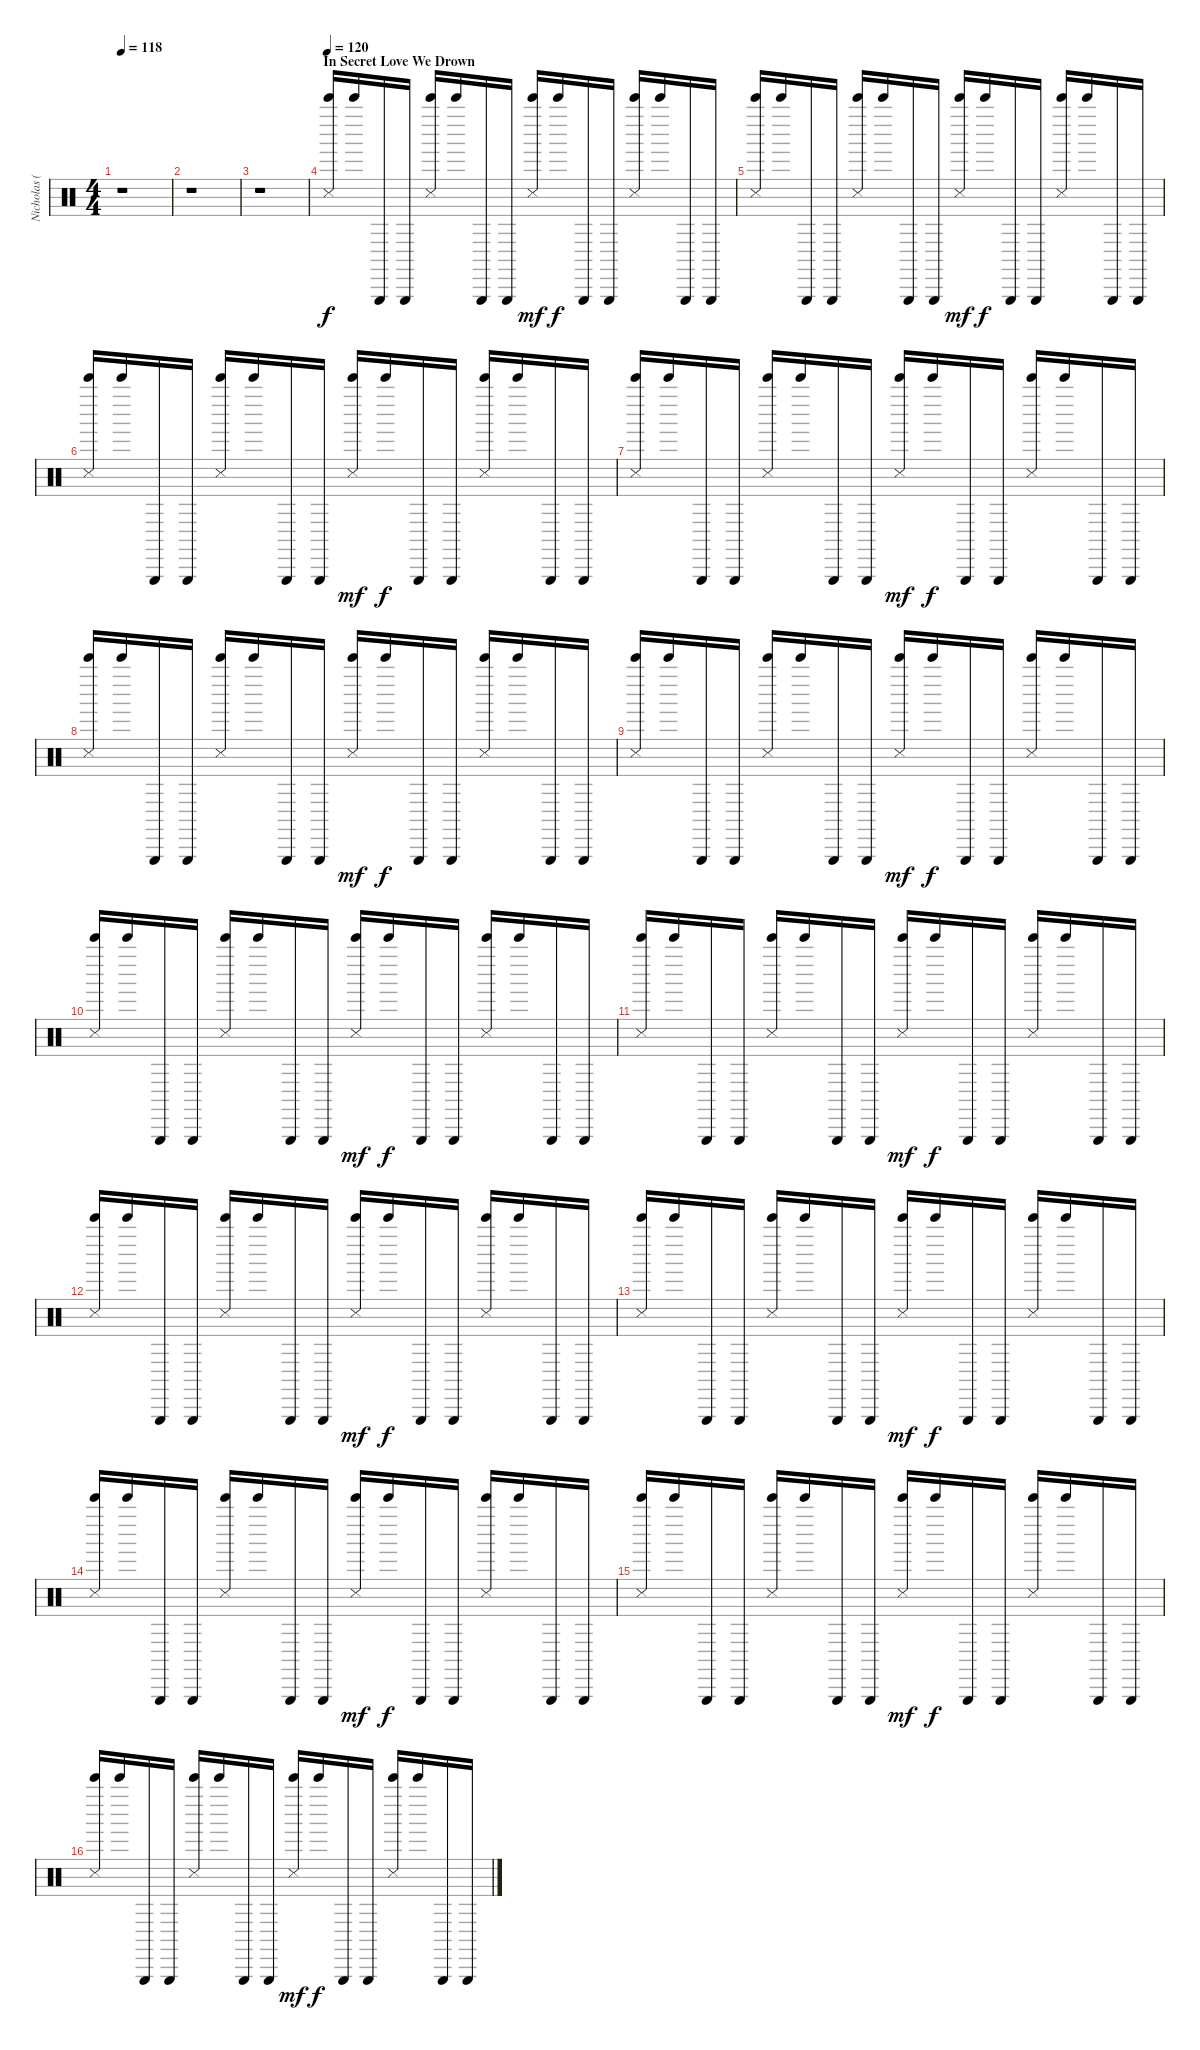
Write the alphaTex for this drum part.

\track ("Nicholas (Drums)" "Nicholas (") {instrument percussion}
\staff {score}
\articulation defaults
\ts (4 4)
\tempo 118
\clef neutral
\ks c
r.1{dy f} |
r.1 |
r.1 |
\section ("" "In Secret Love We Drown")
\tempo 120
("Bell Tree (hit)" "Metronome (hit)").16 "Bell Tree (hit)".16 "Triangle (hit)".16 "Triangle (hit)".16 ("Bell Tree (hit)" "Snare (side stick) 3").16 "Bell Tree (hit)".16 "Triangle (hit)".16 "Triangle (hit)".16 ("Bell Tree (hit)" "Metronome (hit)").16{dy mf} "Bell Tree (hit)".16{dy f} "Triangle (hit)".16 "Triangle (hit)".16 ("Bell Tree (hit)" "Snare (side stick) 3").16 "Bell Tree (hit)".16 "Triangle (hit)".16 "Triangle (hit)".16 |
("Bell Tree (hit)" "Metronome (hit)").16 "Bell Tree (hit)".16 "Triangle (hit)".16 "Triangle (hit)".16 ("Bell Tree (hit)" "Snare (side stick) 3").16 "Bell Tree (hit)".16 "Triangle (hit)".16 "Triangle (hit)".16 ("Bell Tree (hit)" "Metronome (hit)").16{dy mf} "Bell Tree (hit)".16{dy f} "Triangle (hit)".16 "Triangle (hit)".16 ("Bell Tree (hit)" "Snare (side stick) 3").16 "Bell Tree (hit)".16 "Triangle (hit)".16 "Triangle (hit)".16 |
("Bell Tree (hit)" "Metronome (hit)").16 "Bell Tree (hit)".16 "Triangle (hit)".16 "Triangle (hit)".16 ("Bell Tree (hit)" "Snare (side stick) 3").16 "Bell Tree (hit)".16 "Triangle (hit)".16 "Triangle (hit)".16 ("Bell Tree (hit)" "Metronome (hit)").16{dy mf} "Bell Tree (hit)".16{dy f} "Triangle (hit)".16 "Triangle (hit)".16 ("Bell Tree (hit)" "Snare (side stick) 3").16 "Bell Tree (hit)".16 "Triangle (hit)".16 "Triangle (hit)".16 |
("Bell Tree (hit)" "Metronome (hit)").16 "Bell Tree (hit)".16 "Triangle (hit)".16 "Triangle (hit)".16 ("Bell Tree (hit)" "Snare (side stick) 3").16 "Bell Tree (hit)".16 "Triangle (hit)".16 "Triangle (hit)".16 ("Bell Tree (hit)" "Metronome (hit)").16{dy mf} "Bell Tree (hit)".16{dy f} "Triangle (hit)".16 "Triangle (hit)".16 ("Bell Tree (hit)" "Snare (side stick) 3").16 "Bell Tree (hit)".16 "Triangle (hit)".16 "Triangle (hit)".16 |
("Bell Tree (hit)" "Metronome (hit)").16 "Bell Tree (hit)".16 "Triangle (hit)".16 "Triangle (hit)".16 ("Bell Tree (hit)" "Snare (side stick) 3").16 "Bell Tree (hit)".16 "Triangle (hit)".16 "Triangle (hit)".16 ("Bell Tree (hit)" "Metronome (hit)").16{dy mf} "Bell Tree (hit)".16{dy f} "Triangle (hit)".16 "Triangle (hit)".16 ("Bell Tree (hit)" "Snare (side stick) 3").16 "Bell Tree (hit)".16 "Triangle (hit)".16 "Triangle (hit)".16 |
("Bell Tree (hit)" "Metronome (hit)").16 "Bell Tree (hit)".16 "Triangle (hit)".16 "Triangle (hit)".16 ("Bell Tree (hit)" "Snare (side stick) 3").16 "Bell Tree (hit)".16 "Triangle (hit)".16 "Triangle (hit)".16 ("Bell Tree (hit)" "Metronome (hit)").16{dy mf} "Bell Tree (hit)".16{dy f} "Triangle (hit)".16 "Triangle (hit)".16 ("Bell Tree (hit)" "Snare (side stick) 3").16 "Bell Tree (hit)".16 "Triangle (hit)".16 "Triangle (hit)".16 |
("Bell Tree (hit)" "Metronome (hit)").16 "Bell Tree (hit)".16 "Triangle (hit)".16 "Triangle (hit)".16 ("Bell Tree (hit)" "Snare (side stick) 3").16 "Bell Tree (hit)".16 "Triangle (hit)".16 "Triangle (hit)".16 ("Bell Tree (hit)" "Metronome (hit)").16{dy mf} "Bell Tree (hit)".16{dy f} "Triangle (hit)".16 "Triangle (hit)".16 ("Bell Tree (hit)" "Snare (side stick) 3").16 "Bell Tree (hit)".16 "Triangle (hit)".16 "Triangle (hit)".16 |
("Bell Tree (hit)" "Metronome (hit)").16 "Bell Tree (hit)".16 "Triangle (hit)".16 "Triangle (hit)".16 ("Bell Tree (hit)" "Snare (side stick) 3").16 "Bell Tree (hit)".16 "Triangle (hit)".16 "Triangle (hit)".16 ("Bell Tree (hit)" "Metronome (hit)").16{dy mf} "Bell Tree (hit)".16{dy f} "Triangle (hit)".16 "Triangle (hit)".16 ("Bell Tree (hit)" "Snare (side stick) 3").16 "Bell Tree (hit)".16 "Triangle (hit)".16 "Triangle (hit)".16 |
("Bell Tree (hit)" "Metronome (hit)").16 "Bell Tree (hit)".16 "Triangle (hit)".16 "Triangle (hit)".16 ("Bell Tree (hit)" "Snare (side stick) 3").16 "Bell Tree (hit)".16 "Triangle (hit)".16 "Triangle (hit)".16 ("Bell Tree (hit)" "Metronome (hit)").16{dy mf} "Bell Tree (hit)".16{dy f} "Triangle (hit)".16 "Triangle (hit)".16 ("Bell Tree (hit)" "Snare (side stick) 3").16 "Bell Tree (hit)".16 "Triangle (hit)".16 "Triangle (hit)".16 |
("Bell Tree (hit)" "Metronome (hit)").16 "Bell Tree (hit)".16 "Triangle (hit)".16 "Triangle (hit)".16 ("Bell Tree (hit)" "Snare (side stick) 3").16 "Bell Tree (hit)".16 "Triangle (hit)".16 "Triangle (hit)".16 ("Bell Tree (hit)" "Metronome (hit)").16{dy mf} "Bell Tree (hit)".16{dy f} "Triangle (hit)".16 "Triangle (hit)".16 ("Bell Tree (hit)" "Snare (side stick) 3").16 "Bell Tree (hit)".16 "Triangle (hit)".16 "Triangle (hit)".16 |
("Bell Tree (hit)" "Metronome (hit)").16 "Bell Tree (hit)".16 "Triangle (hit)".16 "Triangle (hit)".16 ("Bell Tree (hit)" "Snare (side stick) 3").16 "Bell Tree (hit)".16 "Triangle (hit)".16 "Triangle (hit)".16 ("Bell Tree (hit)" "Metronome (hit)").16{dy mf} "Bell Tree (hit)".16{dy f} "Triangle (hit)".16 "Triangle (hit)".16 ("Bell Tree (hit)" "Snare (side stick) 3").16 "Bell Tree (hit)".16 "Triangle (hit)".16 "Triangle (hit)".16 |
("Bell Tree (hit)" "Metronome (hit)").16 "Bell Tree (hit)".16 "Triangle (hit)".16 "Triangle (hit)".16 ("Bell Tree (hit)" "Snare (side stick) 3").16 "Bell Tree (hit)".16 "Triangle (hit)".16 "Triangle (hit)".16 ("Bell Tree (hit)" "Metronome (hit)").16{dy mf} "Bell Tree (hit)".16{dy f} "Triangle (hit)".16 "Triangle (hit)".16 ("Bell Tree (hit)" "Snare (side stick) 3").16 "Bell Tree (hit)".16 "Triangle (hit)".16 "Triangle (hit)".16 |
("Bell Tree (hit)" "Metronome (hit)").16 "Bell Tree (hit)".16 "Triangle (hit)".16 "Triangle (hit)".16 ("Bell Tree (hit)" "Snare (side stick) 3").16 "Bell Tree (hit)".16 "Triangle (hit)".16 "Triangle (hit)".16 ("Bell Tree (hit)" "Metronome (hit)").16{dy mf} "Bell Tree (hit)".16{dy f} "Triangle (hit)".16 "Triangle (hit)".16 ("Bell Tree (hit)" "Snare (side stick) 3").16 "Bell Tree (hit)".16 "Triangle (hit)".16 "Triangle (hit)".16
